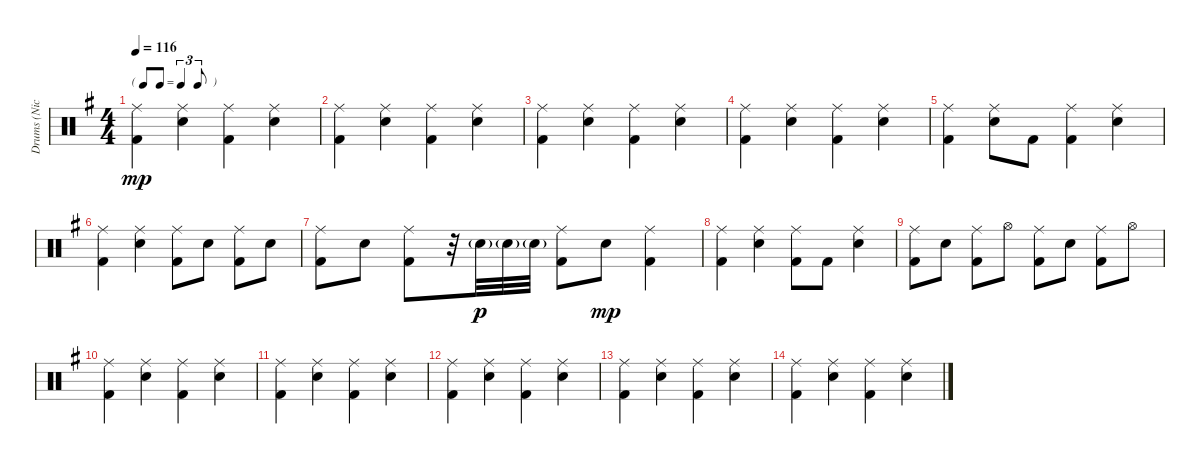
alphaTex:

\track ("Drums (Nick Mason)" "Drums (Nic") {instrument percussion}
\staff {score}
\articulation defaults
\ts (4 4)
\tf triplet8th
\tempo 116
\clef neutral
\ks g
("Ride (middle)" "Kick (hit) 2").4{dy mp} ("Ride (middle)" "Snare (hit) 2").4 ("Ride (middle)" "Kick (hit) 2").4 ("Ride (middle)" "Snare (hit) 2").4 |
("Ride (middle)" "Kick (hit) 2").4 ("Ride (middle)" "Snare (hit) 2").4 ("Ride (middle)" "Kick (hit) 2").4 ("Ride (middle)" "Snare (hit) 2").4 |
("Ride (middle)" "Kick (hit) 2").4 ("Ride (middle)" "Snare (hit) 2").4 ("Ride (middle)" "Kick (hit) 2").4 ("Ride (middle)" "Snare (hit) 2").4 |
("Ride (middle)" "Kick (hit) 2").4 ("Ride (middle)" "Snare (hit) 2").4 ("Ride (middle)" "Kick (hit) 2").4 ("Ride (middle)" "Snare (hit) 2").4 |
("Ride (middle)" "Kick (hit) 2").4{volume 8} ("Ride (middle)" "Snare (hit) 2").8 "Kick (hit) 2".8 ("Ride (middle)" "Kick (hit) 2").4 ("Ride (middle)" "Snare (hit) 2").4 |
("Ride (middle)" "Kick (hit) 2").4 ("Ride (middle)" "Snare (hit) 2").4 ("Ride (middle)" "Kick (hit) 2").8 "Snare (hit) 2".8 ("Ride (middle)" "Kick (hit) 2").8 "Snare (hit) 2".8 |
("Ride (middle)" "Kick (hit) 2").8 "Snare (hit) 2".8 ("Ride (middle)" "Kick (hit) 2").8 r.32 "Snare (hit) 2"{g}.32{dy p} "Snare (hit) 2"{g}.32 "Snare (hit) 2"{g}.32 ("Ride (middle)" "Kick (hit) 2").8 "Snare (hit) 2".8{dy mp} ("Ride (middle)" "Kick (hit) 2").4 |
("Ride (middle)" "Kick (hit) 2").4 ("Ride (middle)" "Snare (hit) 2").4 ("Ride (middle)" "Kick (hit) 2").8 "Kick (hit) 2".8 ("Ride (middle)" "Snare (hit) 2").4 |
("Ride (middle)" "Kick (hit) 2").8{volume 2} "Snare (hit) 2".8 ("Ride (middle)" "Kick (hit) 2").8 "Hi-Hat (open)".8 ("Ride (middle)" "Kick (hit) 2").8 "Snare (hit) 2".8 ("Ride (middle)" "Kick (hit) 2").8 "Hi-Hat (open)".8 |
("Ride (middle)" "Kick (hit) 2").4 ("Ride (middle)" "Snare (hit) 2").4 ("Ride (middle)" "Kick (hit) 2").4 ("Ride (middle)" "Snare (hit) 2").4 |
("Ride (middle)" "Kick (hit) 2").4 ("Ride (middle)" "Snare (hit) 2").4 ("Ride (middle)" "Kick (hit) 2").4 ("Ride (middle)" "Snare (hit) 2").4 |
("Ride (middle)" "Kick (hit) 2").4 ("Ride (middle)" "Snare (hit) 2").4 ("Ride (middle)" "Kick (hit) 2").4 ("Ride (middle)" "Snare (hit) 2").4 |
("Ride (middle)" "Kick (hit) 2").4{volume 0} ("Ride (middle)" "Snare (hit) 2").4 ("Ride (middle)" "Kick (hit) 2").4 ("Ride (middle)" "Snare (hit) 2").4 |
("Ride (middle)" "Kick (hit) 2").4 ("Ride (middle)" "Snare (hit) 2").4 ("Ride (middle)" "Kick (hit) 2").4 ("Ride (middle)" "Snare (hit) 2").4
